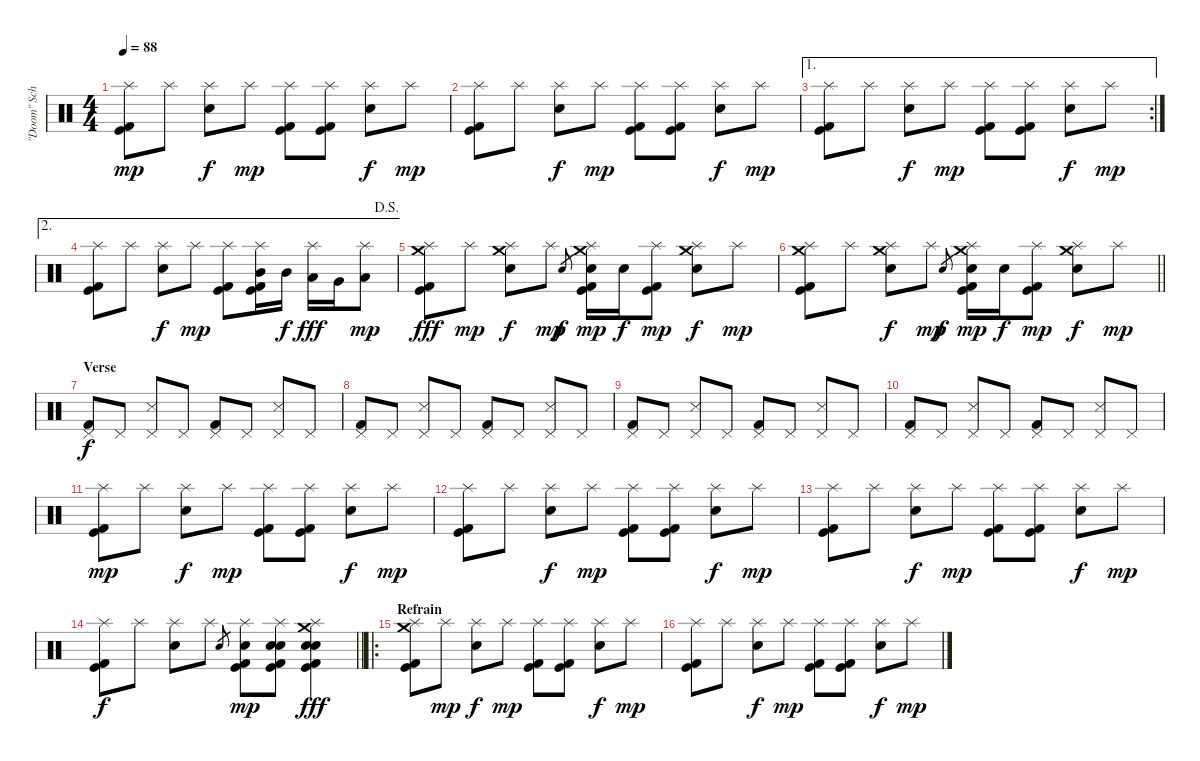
\track ("\"Doom\" Schneider" "\"Doom\" Sch") {instrument percussion}
\staff {score}
\articulation defaults
\ts (4 4)
\tempo 88
\clef neutral
\ks c
("Splash (hit)" "Kick (hit)" "Kick (hit) 2").8{dy mp} "Splash (hit)".8 ("Splash (hit)" "Snare (hit) 2").8{dy f} "Splash (hit)".8{dy mp} ("Splash (hit)" "Kick (hit)" "Kick (hit) 2").8 ("Splash (hit)" "Kick (hit)" "Kick (hit) 2").8 ("Splash (hit)" "Snare (hit) 2").8{dy f} "Splash (hit)".8{dy mp} |
("Splash (hit)" "Kick (hit)" "Kick (hit) 2").8 "Splash (hit)".8 ("Splash (hit)" "Snare (hit) 2").8{dy f} "Splash (hit)".8{dy mp} ("Splash (hit)" "Kick (hit)" "Kick (hit) 2").8 ("Splash (hit)" "Kick (hit)" "Kick (hit) 2").8 ("Splash (hit)" "Snare (hit) 2").8{dy f} "Splash (hit)".8{dy mp} |
\ae 1
\rc 2
("Splash (hit)" "Kick (hit)" "Kick (hit) 2").8 "Splash (hit)".8 ("Splash (hit)" "Snare (hit) 2").8{dy f} "Splash (hit)".8{dy mp} ("Splash (hit)" "Kick (hit)" "Kick (hit) 2").8 ("Splash (hit)" "Kick (hit)" "Kick (hit) 2").8 ("Splash (hit)" "Snare (hit) 2").8{dy f} "Splash (hit)".8{dy mp} |
\ae 2
\jump dalsegno
("Splash (hit)" "Kick (hit)" "Kick (hit) 2").8 "Splash (hit)".8 ("Splash (hit)" "Snare (hit) 2").8{dy f} "Splash (hit)".8{dy mp} ("Splash (hit)" "Kick (hit)" "Kick (hit) 2").8 ("Splash (hit)" "Kick (hit)" "Kick (hit) 2" "Mid Tom (hit)").16 "Mid Tom (hit)".16{dy f} ("Splash (hit)" "Low Tom (hit)").16{dy fff} "Very Low Tom (hit)".16 ("Splash (hit)" "Low Floor Tom (hit)").8{dy mp} |
("Splash (hit)" "Kick (hit)" "Kick (hit) 2" "Crash medium (hit)").8{dy fff} "Splash (hit)".8{dy mp} ("Splash (hit)" "Snare (hit) 2" "Crash medium (hit)").8{dy f} "Splash (hit)".8{dy mp} "Snare (hit) 2".8{gr dy f} ("Splash (hit)" "Kick (hit)" "Kick (hit) 2" "Snare (hit) 2" "Crash medium (hit)").16{dy mp} "Snare (hit) 2".16{dy f} ("Splash (hit)" "Kick (hit)" "Kick (hit) 2").8{dy mp} ("Splash (hit)" "Snare (hit) 2" "Crash medium (hit)").8{dy f} "Splash (hit)".8{dy mp} |
\barLineRight lightlight
("Splash (hit)" "Kick (hit)" "Kick (hit) 2" "Crash medium (hit)").8 "Splash (hit)".8 ("Splash (hit)" "Snare (hit) 2" "Crash medium (hit)").8{dy f} "Splash (hit)".8{dy mp} "Snare (hit) 2".8{gr dy f} ("Splash (hit)" "Kick (hit)" "Kick (hit) 2" "Crash medium (hit)" "Snare (hit) 2").16{dy mp} "Snare (hit) 2".16{dy f} ("Splash (hit)" "Kick (hit)" "Kick (hit) 2").8{dy mp} ("Splash (hit)" "Snare (hit) 2" "Crash medium (hit)").8{dy f} "Splash (hit)".8{dy mp} |
\section ("" "Verse")
("Pedal Hi-Hat (hit)" "Kick (hit) 2").8{dy f} "Pedal Hi-Hat (hit)".8 ("Pedal Hi-Hat (hit)" "Snare (side stick) 3").8 "Pedal Hi-Hat (hit)".8 ("Pedal Hi-Hat (hit)" "Kick (hit) 2").8 "Pedal Hi-Hat (hit)".8 ("Pedal Hi-Hat (hit)" "Snare (side stick) 3").8 "Pedal Hi-Hat (hit)".8 |
("Pedal Hi-Hat (hit)" "Kick (hit) 2").8 "Pedal Hi-Hat (hit)".8 ("Pedal Hi-Hat (hit)" "Snare (side stick) 3").8 "Pedal Hi-Hat (hit)".8 ("Pedal Hi-Hat (hit)" "Kick (hit) 2").8 "Pedal Hi-Hat (hit)".8 ("Pedal Hi-Hat (hit)" "Snare (side stick) 3").8 "Pedal Hi-Hat (hit)".8 |
("Pedal Hi-Hat (hit)" "Kick (hit) 2").8 "Pedal Hi-Hat (hit)".8 ("Pedal Hi-Hat (hit)" "Snare (side stick) 3").8 "Pedal Hi-Hat (hit)".8 ("Pedal Hi-Hat (hit)" "Kick (hit) 2").8 "Pedal Hi-Hat (hit)".8 ("Pedal Hi-Hat (hit)" "Snare (side stick) 3").8 "Pedal Hi-Hat (hit)".8 |
("Pedal Hi-Hat (hit)" "Kick (hit) 2").8 "Pedal Hi-Hat (hit)".8 ("Pedal Hi-Hat (hit)" "Snare (side stick) 3").8 "Pedal Hi-Hat (hit)".8 ("Pedal Hi-Hat (hit)" "Kick (hit) 2").8 "Pedal Hi-Hat (hit)".8 ("Pedal Hi-Hat (hit)" "Snare (side stick) 3").8 "Pedal Hi-Hat (hit)".8 |
("Splash (hit)" "Kick (hit)" "Kick (hit) 2").8{dy mp} "Splash (hit)".8 ("Splash (hit)" "Snare (hit) 2").8{dy f} "Splash (hit)".8{dy mp} ("Splash (hit)" "Kick (hit)" "Kick (hit) 2").8 ("Splash (hit)" "Kick (hit)" "Kick (hit) 2").8 ("Splash (hit)" "Snare (hit) 2").8{dy f} "Splash (hit)".8{dy mp} |
("Splash (hit)" "Kick (hit)" "Kick (hit) 2").8 "Splash (hit)".8 ("Splash (hit)" "Snare (hit) 2").8{dy f} "Splash (hit)".8{dy mp} ("Splash (hit)" "Kick (hit)" "Kick (hit) 2").8 ("Splash (hit)" "Kick (hit)" "Kick (hit) 2").8 ("Splash (hit)" "Snare (hit) 2").8{dy f} "Splash (hit)".8{dy mp} |
("Splash (hit)" "Kick (hit)" "Kick (hit) 2").8 "Splash (hit)".8 ("Splash (hit)" "Snare (hit) 2").8{dy f} "Splash (hit)".8{dy mp} ("Splash (hit)" "Kick (hit)" "Kick (hit) 2").8 ("Splash (hit)" "Kick (hit)" "Kick (hit) 2").8 ("Splash (hit)" "Snare (hit) 2").8{dy f} "Splash (hit)".8{dy mp} |
\barLineRight lightlight
("Splash (hit)" "Kick (hit)" "Kick (hit) 2").8{dy f} "Splash (hit)".8 ("Splash (hit)" "Snare (hit) 2").8 "Splash (hit)".8 "Electric Snare (hit)".8{gr} ("Splash (hit)" "Kick (hit)" "Kick (hit) 2" "Electric Snare (hit)"{tr (40 32)}).8{dy mp} ("Splash (hit)" "Kick (hit)" "Kick (hit) 2" "Snare (hit) 2" "Snare (hit) 2"{tr (38 32)}).8 ("Splash (hit)" "Crash medium (hit)" "Snare (hit) 2" "Snare (hit) 2" "Kick (hit) 2" "Kick (hit)").4{dy fff} |
\ro
\section ("" "Refrain")
("Splash (hit)" "Kick (hit)" "Kick (hit) 2" "Crash medium (hit)").8 "Splash (hit)".8{dy mp} ("Splash (hit)" "Snare (hit) 2").8{dy f} "Splash (hit)".8{dy mp} ("Splash (hit)" "Kick (hit)" "Kick (hit) 2").8 ("Splash (hit)" "Kick (hit)" "Kick (hit) 2").8 ("Splash (hit)" "Snare (hit) 2").8{dy f} "Splash (hit)".8{dy mp} |
("Splash (hit)" "Kick (hit)" "Kick (hit) 2").8 "Splash (hit)".8 ("Splash (hit)" "Snare (hit) 2").8{dy f} "Splash (hit)".8{dy mp} ("Splash (hit)" "Kick (hit)" "Kick (hit) 2").8 ("Splash (hit)" "Kick (hit)" "Kick (hit) 2").8 ("Splash (hit)" "Snare (hit) 2").8{dy f} "Splash (hit)".8{dy mp}
